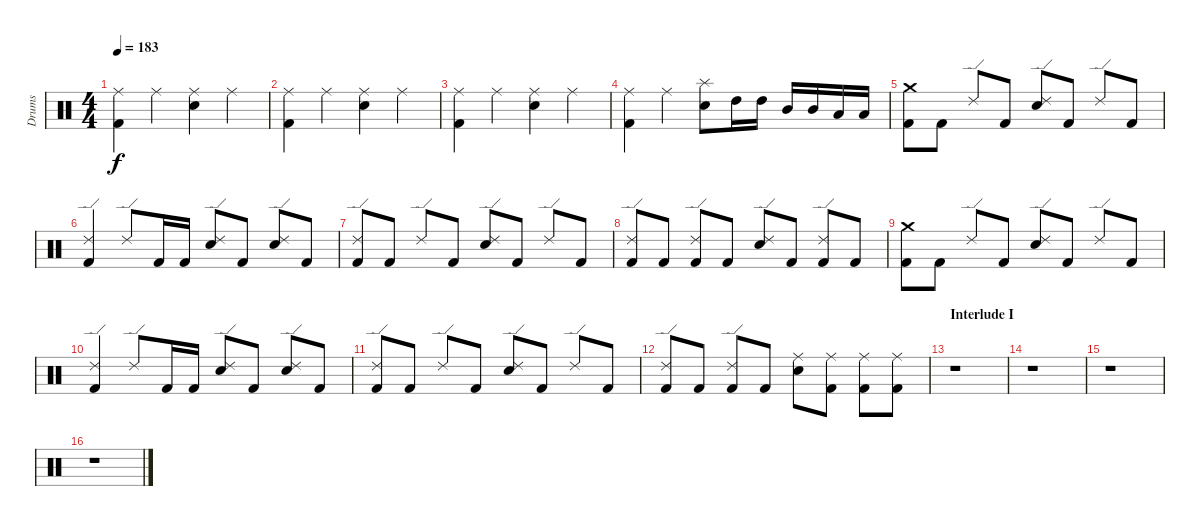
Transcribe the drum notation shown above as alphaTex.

\track ("Drums" "Drums") {instrument percussion}
\staff {score}
\articulation defaults
\ts (4 4)
\tempo 183
\clef neutral
\ks c
("Kick (hit) 2" "Ride (middle)").4{dy f} "Ride (middle)".4 ("Electric Snare (hit)" "Ride (middle)").4 "Ride (middle)".4 |
("Kick (hit) 2" "Ride (middle)").4 "Ride (middle)".4 ("Electric Snare (hit)" "Ride (middle)").4 "Ride (middle)".4 |
("Kick (hit) 2" "Ride (middle)").4 "Ride (middle)".4 ("Electric Snare (hit)" "Ride (middle)").4 "Ride (middle)".4 |
("Kick (hit) 2" "Ride (middle)").4 "Ride (middle)".4{volume 16} ("Electric Snare (hit)" "Splash (hit)").8 "High Tom (hit)".16 "High Tom (hit)".16 "Mid Tom (hit)".16 "Mid Tom (hit)".16 "Low Tom (hit)".16 "Low Tom (hit)".16 |
("Kick (hit) 2" "Crash medium (hit)").8 "Kick (hit) 2".8 "Ride (edge) 2".8 "Kick (hit) 2".8 ("Electric Snare (hit)" "Ride (edge) 2").8 "Kick (hit) 2".8 "Ride (edge) 2".8 "Kick (hit) 2".8 |
("Kick (hit) 2" "Ride (edge) 2").4 "Ride (edge) 2".8 "Kick (hit) 2".16 "Kick (hit) 2".16 ("Electric Snare (hit)" "Ride (edge) 2").8 "Kick (hit) 2".8 ("Electric Snare (hit)" "Ride (edge) 2").8 "Kick (hit) 2".8 |
("Kick (hit) 2" "Ride (edge) 2").8 "Kick (hit) 2".8 "Ride (edge) 2".8 "Kick (hit) 2".8 ("Electric Snare (hit)" "Ride (edge) 2").8 "Kick (hit) 2".8 "Ride (edge) 2".8 "Kick (hit) 2".8 |
("Kick (hit) 2" "Ride (edge) 2").8 "Kick (hit) 2".8 ("Kick (hit) 2" "Ride (edge) 2").8 "Kick (hit) 2".8 ("Electric Snare (hit)" "Ride (edge) 2").8 "Kick (hit) 2".8 ("Kick (hit) 2" "Ride (edge) 2").8 "Kick (hit) 2".8 |
("Kick (hit) 2" "Crash medium (hit)").8 "Kick (hit) 2".8 "Ride (edge) 2".8 "Kick (hit) 2".8 ("Electric Snare (hit)" "Ride (edge) 2").8 "Kick (hit) 2".8 "Ride (edge) 2".8 "Kick (hit) 2".8 |
("Kick (hit) 2" "Ride (edge) 2").4 "Ride (edge) 2".8 "Kick (hit) 2".16 "Kick (hit) 2".16 ("Electric Snare (hit)" "Ride (edge) 2").8 "Kick (hit) 2".8 ("Electric Snare (hit)" "Ride (edge) 2").8 "Kick (hit) 2".8 |
("Kick (hit) 2" "Ride (edge) 2").8 "Kick (hit) 2".8 "Ride (edge) 2".8 "Kick (hit) 2".8 ("Electric Snare (hit)" "Ride (edge) 2").8 "Kick (hit) 2".8 "Ride (edge) 2".8 "Kick (hit) 2".8 |
("Kick (hit) 2" "Ride (edge) 2").8 "Kick (hit) 2".8 ("Kick (hit) 2" "Ride (edge) 2").8 "Kick (hit) 2".8 ("Electric Snare (hit)" "Ride (middle)").8 ("Kick (hit) 2" "Ride (middle)").8 ("Kick (hit) 2" "Ride (middle)").8 ("Kick (hit) 2" "Ride (middle)").8 |
\section ("" "Interlude I")
r.1 |
r.1 |
r.1 |
r.1
